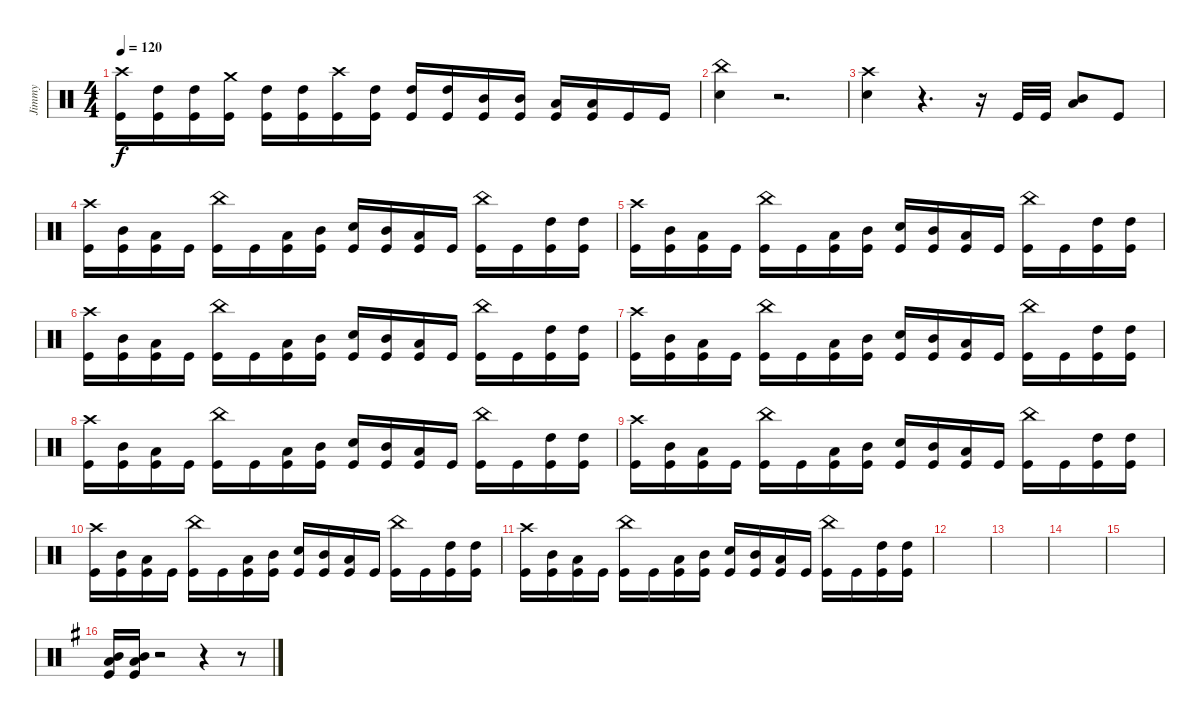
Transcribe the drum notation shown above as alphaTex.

\track ("Jimmy" "Jimmy") {instrument percussion}
\staff {score}
\articulation defaults
\ts (4 4)
\tempo 120
\clef neutral
\ks c
("Kick (hit)" "Crash high (hit)").16{dy f} ("Kick (hit)" "High Tom (hit)").16 ("Kick (hit)" "High Tom (hit)").16 ("Kick (hit)" "Crash medium (hit)").16 ("Kick (hit)" "High Tom (hit)").16 ("High Tom (hit)" "Kick (hit)").16 ("Kick (hit)" "Crash high (hit)").16 ("Kick (hit)" "High Tom (hit)").16 ("Kick (hit)" "High Tom (hit)").16 ("Kick (hit)" "High Tom (hit)").16 ("Kick (hit)" "Mid Tom (hit)").16 ("Kick (hit)" "Mid Tom (hit)").16 ("Kick (hit)" "Low Tom (hit)").16 ("Kick (hit)" "Low Tom (hit)").16 "Kick (hit)".16 "Kick (hit)".16 |
("Snare (hit) 2" "China (hit)").4 r.2{d} |
("Snare (hit) 2" "Crash high (hit)").4 r.4{d} r.16 "Kick (hit)".32 "Kick (hit)".32 ("Low Tom (hit)" "Mid Tom (hit)").8 "Kick (hit)".8 |
("Kick (hit)" "Crash high (hit)").16 ("Kick (hit)" "Mid Tom (hit)").16 ("Kick (hit)" "Low Tom (hit)").16 "Kick (hit)".16 ("Kick (hit)" "China (hit)").16 "Kick (hit)".16 ("Kick (hit)" "Low Tom (hit)").16 ("Kick (hit)" "Mid Tom (hit)").16 ("Kick (hit)" "Snare (hit) 2").16 ("Kick (hit)" "Mid Tom (hit)").16 ("Kick (hit)" "Low Tom (hit)").16 "Kick (hit)".16 ("Kick (hit)" "China (hit)").16 "Kick (hit)".16 ("Kick (hit)" "High Tom (hit)").16 ("Kick (hit)" "High Tom (hit)").16 |
("Kick (hit)" "Crash high (hit)").16 ("Kick (hit)" "Mid Tom (hit)").16 ("Kick (hit)" "Low Tom (hit)").16 "Kick (hit)".16 ("Kick (hit)" "China (hit)").16 "Kick (hit)".16 ("Kick (hit)" "Low Tom (hit)").16 ("Kick (hit)" "Mid Tom (hit)").16 ("Kick (hit)" "Snare (hit) 2").16 ("Kick (hit)" "Mid Tom (hit)").16 ("Kick (hit)" "Low Tom (hit)").16 "Kick (hit)".16 ("Kick (hit)" "China (hit)").16 "Kick (hit)".16 ("Kick (hit)" "High Tom (hit)").16 ("Kick (hit)" "High Tom (hit)").16 |
("Kick (hit)" "Crash high (hit)").16 ("Kick (hit)" "Mid Tom (hit)").16 ("Kick (hit)" "Low Tom (hit)").16 "Kick (hit)".16 ("Kick (hit)" "China (hit)").16 "Kick (hit)".16 ("Kick (hit)" "Low Tom (hit)").16 ("Kick (hit)" "Mid Tom (hit)").16 ("Kick (hit)" "Snare (hit) 2").16 ("Kick (hit)" "Mid Tom (hit)").16 ("Kick (hit)" "Low Tom (hit)").16 "Kick (hit)".16 ("Kick (hit)" "China (hit)").16 "Kick (hit)".16 ("Kick (hit)" "High Tom (hit)").16 ("Kick (hit)" "High Tom (hit)").16 |
("Kick (hit)" "Crash high (hit)").16 ("Kick (hit)" "Mid Tom (hit)").16 ("Kick (hit)" "Low Tom (hit)").16 "Kick (hit)".16 ("Kick (hit)" "China (hit)").16 "Kick (hit)".16 ("Kick (hit)" "Low Tom (hit)").16 ("Kick (hit)" "Mid Tom (hit)").16 ("Kick (hit)" "Snare (hit) 2").16 ("Kick (hit)" "Mid Tom (hit)").16 ("Kick (hit)" "Low Tom (hit)").16 "Kick (hit)".16 ("Kick (hit)" "China (hit)").16 "Kick (hit)".16 ("Kick (hit)" "High Tom (hit)").16 ("Kick (hit)" "High Tom (hit)").16 |
("Kick (hit)" "Crash high (hit)").16 ("Kick (hit)" "Mid Tom (hit)").16 ("Kick (hit)" "Low Tom (hit)").16 "Kick (hit)".16 ("Kick (hit)" "China (hit)").16 "Kick (hit)".16 ("Kick (hit)" "Low Tom (hit)").16 ("Kick (hit)" "Mid Tom (hit)").16 ("Kick (hit)" "Snare (hit) 2").16 ("Kick (hit)" "Mid Tom (hit)").16 ("Kick (hit)" "Low Tom (hit)").16 "Kick (hit)".16 ("Kick (hit)" "China (hit)").16 "Kick (hit)".16 ("Kick (hit)" "High Tom (hit)").16 ("Kick (hit)" "High Tom (hit)").16 |
("Kick (hit)" "Crash high (hit)").16 ("Kick (hit)" "Mid Tom (hit)").16 ("Kick (hit)" "Low Tom (hit)").16 "Kick (hit)".16 ("Kick (hit)" "China (hit)").16 "Kick (hit)".16 ("Kick (hit)" "Low Tom (hit)").16 ("Kick (hit)" "Mid Tom (hit)").16 ("Kick (hit)" "Snare (hit) 2").16 ("Kick (hit)" "Mid Tom (hit)").16 ("Kick (hit)" "Low Tom (hit)").16 "Kick (hit)".16 ("Kick (hit)" "China (hit)").16 "Kick (hit)".16 ("Kick (hit)" "High Tom (hit)").16 ("Kick (hit)" "High Tom (hit)").16 |
("Kick (hit)" "Crash high (hit)").16 ("Kick (hit)" "Mid Tom (hit)").16 ("Kick (hit)" "Low Tom (hit)").16 "Kick (hit)".16 ("Kick (hit)" "China (hit)").16 "Kick (hit)".16 ("Kick (hit)" "Low Tom (hit)").16 ("Kick (hit)" "Mid Tom (hit)").16 ("Kick (hit)" "Snare (hit) 2").16 ("Kick (hit)" "Mid Tom (hit)").16 ("Kick (hit)" "Low Tom (hit)").16 "Kick (hit)".16 ("Kick (hit)" "China (hit)").16 "Kick (hit)".16 ("Kick (hit)" "High Tom (hit)").16 ("Kick (hit)" "High Tom (hit)").16 |
("Kick (hit)" "Crash high (hit)").16 ("Kick (hit)" "Mid Tom (hit)").16 ("Kick (hit)" "Low Tom (hit)").16 "Kick (hit)".16 ("Kick (hit)" "China (hit)").16 "Kick (hit)".16 ("Kick (hit)" "Low Tom (hit)").16 ("Kick (hit)" "Mid Tom (hit)").16 ("Kick (hit)" "Snare (hit) 2").16 ("Kick (hit)" "Mid Tom (hit)").16 ("Kick (hit)" "Low Tom (hit)").16 "Kick (hit)".16 ("Kick (hit)" "China (hit)").16 "Kick (hit)".16 ("Kick (hit)" "High Tom (hit)").16 ("Kick (hit)" "High Tom (hit)").16 |
|
|
|
|
\ks eminor
("Mid Tom (hit)" "Low Tom (hit)" "Kick (hit)").16 ("Kick (hit)" "Mid Tom (hit)" "Low Tom (hit)").16 r.2 r.4 r.8
